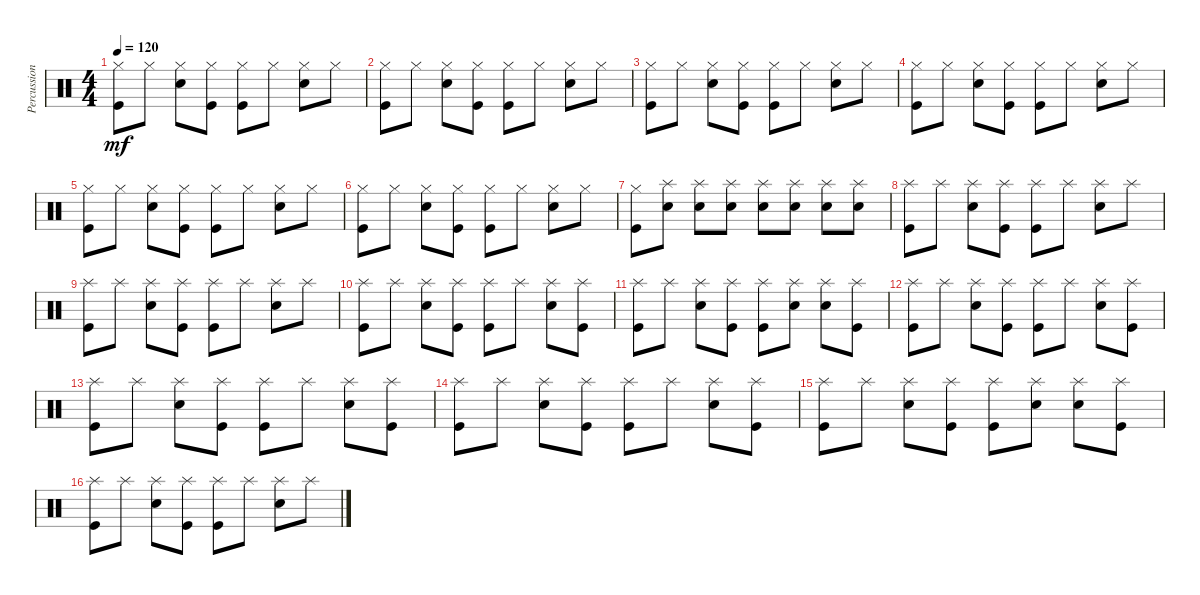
\track ("Percussion" "Percussion") {instrument percussion}
\staff {score}
\articulation defaults
\ts (4 4)
\tempo 120
\clef neutral
\ks c
("Hi-Hat (closed)" "Kick (hit)").8{dy mf} "Hi-Hat (closed)".8 ("Hi-Hat (closed)" "Snare (hit) 2").8 ("Hi-Hat (closed)" "Kick (hit)").8 ("Hi-Hat (closed)" "Kick (hit)").8 "Hi-Hat (closed)".8 ("Hi-Hat (closed)" "Snare (hit) 2").8 "Hi-Hat (closed)".8 |
("Hi-Hat (closed)" "Kick (hit)").8 "Hi-Hat (closed)".8 ("Hi-Hat (closed)" "Snare (hit) 2").8 ("Hi-Hat (closed)" "Kick (hit)").8 ("Hi-Hat (closed)" "Kick (hit)").8 "Hi-Hat (closed)".8 ("Hi-Hat (closed)" "Snare (hit) 2").8 "Hi-Hat (closed)".8 |
("Hi-Hat (closed)" "Kick (hit)").8 "Hi-Hat (closed)".8 ("Hi-Hat (closed)" "Snare (hit) 2").8 ("Hi-Hat (closed)" "Kick (hit)").8 ("Hi-Hat (closed)" "Kick (hit)").8 "Hi-Hat (closed)".8 ("Hi-Hat (closed)" "Snare (hit) 2").8 "Hi-Hat (closed)".8 |
("Hi-Hat (closed)" "Kick (hit)").8 "Hi-Hat (closed)".8 ("Hi-Hat (closed)" "Snare (hit) 2").8 ("Hi-Hat (closed)" "Kick (hit)").8 ("Hi-Hat (closed)" "Kick (hit)").8 "Hi-Hat (closed)".8 ("Hi-Hat (closed)" "Snare (hit) 2").8 "Hi-Hat (closed)".8 |
("Hi-Hat (closed)" "Kick (hit)").8 "Hi-Hat (closed)".8 ("Hi-Hat (closed)" "Snare (hit) 2").8 ("Hi-Hat (closed)" "Kick (hit)").8 ("Hi-Hat (closed)" "Kick (hit)").8 "Hi-Hat (closed)".8 ("Hi-Hat (closed)" "Snare (hit) 2").8 "Hi-Hat (closed)".8 |
("Hi-Hat (closed)" "Kick (hit)").8 "Hi-Hat (closed)".8 ("Hi-Hat (closed)" "Snare (hit) 2").8 ("Hi-Hat (closed)" "Kick (hit)").8 ("Hi-Hat (closed)" "Kick (hit)").8 "Hi-Hat (closed)".8 ("Hi-Hat (closed)" "Snare (hit) 2").8 "Hi-Hat (closed)".8 |
("Hi-Hat (closed)" "Kick (hit)").8 ("Splash (hit)" "Snare (hit) 2").8 ("Splash (hit)" "Snare (hit) 2").8 ("Splash (hit)" "Snare (hit) 2").8 ("Splash (hit)" "Snare (hit) 2").8 ("Splash (hit)" "Snare (hit) 2").8 ("Splash (hit)" "Snare (hit) 2").8 ("Splash (hit)" "Snare (hit) 2").8 |
("Splash (hit)" "Kick (hit)").8 "Splash (hit)".8 ("Splash (hit)" "Snare (hit) 2").8 ("Splash (hit)" "Kick (hit)").8 ("Splash (hit)" "Kick (hit)").8 "Splash (hit)".8 ("Splash (hit)" "Snare (hit) 2").8 "Splash (hit)".8 |
("Splash (hit)" "Kick (hit)").8 "Splash (hit)".8 ("Splash (hit)" "Snare (hit) 2").8 ("Splash (hit)" "Kick (hit)").8 ("Splash (hit)" "Kick (hit)").8 "Splash (hit)".8 ("Splash (hit)" "Snare (hit) 2").8 "Splash (hit)".8 |
("Splash (hit)" "Kick (hit)").8 "Splash (hit)".8 ("Splash (hit)" "Snare (hit) 2").8 ("Splash (hit)" "Kick (hit)").8 ("Splash (hit)" "Kick (hit)").8 "Splash (hit)".8 ("Splash (hit)" "Snare (hit) 2").8 ("Splash (hit)" "Kick (hit)").8 |
("Splash (hit)" "Kick (hit)").8 "Splash (hit)".8 ("Splash (hit)" "Snare (hit) 2").8 ("Splash (hit)" "Kick (hit)").8 ("Splash (hit)" "Kick (hit)").8 ("Splash (hit)" "Snare (hit) 2").8 ("Splash (hit)" "Snare (hit) 2").8 ("Splash (hit)" "Kick (hit)").8 |
("Splash (hit)" "Kick (hit)").8 "Splash (hit)".8 ("Splash (hit)" "Snare (hit) 2").8 ("Splash (hit)" "Kick (hit)").8 ("Splash (hit)" "Kick (hit)").8 "Splash (hit)".8 ("Splash (hit)" "Snare (hit) 2").8 ("Splash (hit)" "Kick (hit)").8 |
("Splash (hit)" "Kick (hit)").8 "Splash (hit)".8 ("Splash (hit)" "Snare (hit) 2").8 ("Splash (hit)" "Kick (hit)").8 ("Splash (hit)" "Kick (hit)").8 "Splash (hit)".8 ("Splash (hit)" "Snare (hit) 2").8 ("Splash (hit)" "Kick (hit)").8 |
("Splash (hit)" "Kick (hit)").8 "Splash (hit)".8 ("Splash (hit)" "Snare (hit) 2").8 ("Splash (hit)" "Kick (hit)").8 ("Splash (hit)" "Kick (hit)").8 "Splash (hit)".8 ("Splash (hit)" "Snare (hit) 2").8 ("Splash (hit)" "Kick (hit)").8 |
("Splash (hit)" "Kick (hit)").8 "Splash (hit)".8 ("Splash (hit)" "Snare (hit) 2").8 ("Splash (hit)" "Kick (hit)").8 ("Splash (hit)" "Kick (hit)").8 ("Splash (hit)" "Snare (hit) 2").8 ("Splash (hit)" "Snare (hit) 2").8 ("Splash (hit)" "Kick (hit)").8 |
("Splash (hit)" "Kick (hit)").8 "Splash (hit)".8 ("Splash (hit)" "Snare (hit) 2").8 ("Splash (hit)" "Kick (hit)").8 ("Splash (hit)" "Kick (hit)").8 "Splash (hit)".8 ("Splash (hit)" "Snare (hit) 2").8 "Splash (hit)".8
